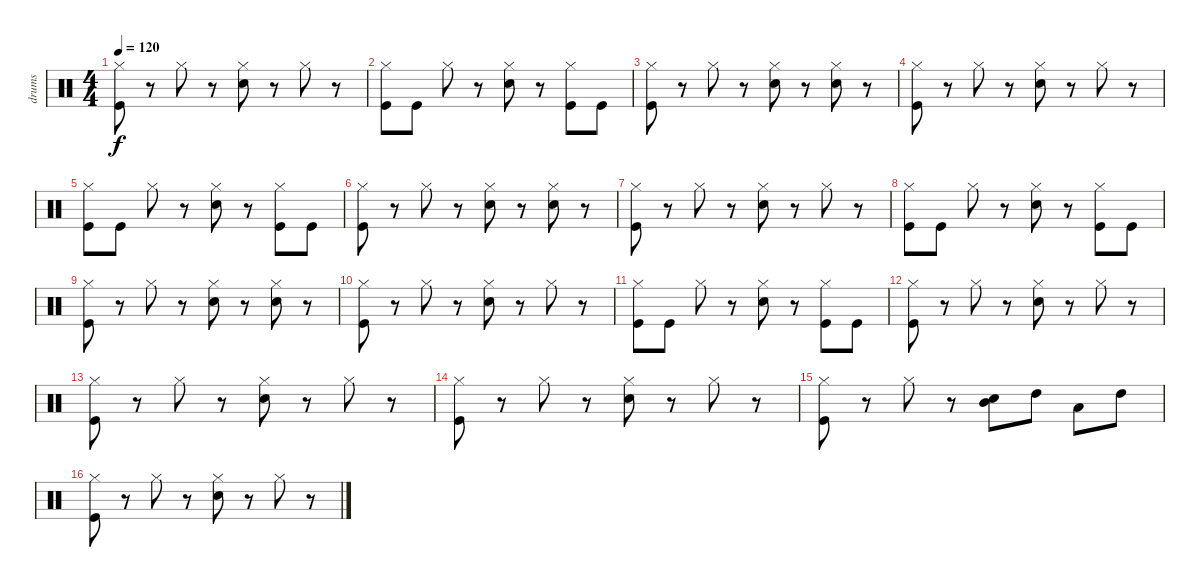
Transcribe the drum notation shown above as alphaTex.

\track ("drums" "drums") {instrument percussion}
\staff {score}
\articulation defaults
\ts (4 4)
\tempo 120
\clef neutral
\ks c
("Hi-Hat (closed)" "Kick (hit)").8{dy f} r.8 "Hi-Hat (closed)".8 r.8 ("Hi-Hat (closed)" "Electric Snare (hit)").8 r.8 "Hi-Hat (closed)".8 r.8 |
("Hi-Hat (closed)" "Kick (hit)").8 "Kick (hit)".8 "Hi-Hat (closed)".8 r.8 ("Hi-Hat (closed)" "Electric Snare (hit)").8 r.8 ("Hi-Hat (closed)" "Kick (hit)").8 "Kick (hit)".8 |
("Hi-Hat (closed)" "Kick (hit)").8 r.8 "Hi-Hat (closed)".8 r.8 ("Hi-Hat (closed)" "Electric Snare (hit)").8 r.8 ("Hi-Hat (closed)" "Electric Snare (hit)").8 r.8 |
("Hi-Hat (closed)" "Kick (hit)").8 r.8 "Hi-Hat (closed)".8 r.8 ("Hi-Hat (closed)" "Electric Snare (hit)").8 r.8 "Hi-Hat (closed)".8 r.8 |
("Hi-Hat (closed)" "Kick (hit)").8 "Kick (hit)".8 "Hi-Hat (closed)".8 r.8 ("Hi-Hat (closed)" "Electric Snare (hit)").8 r.8 ("Hi-Hat (closed)" "Kick (hit)").8 "Kick (hit)".8 |
("Hi-Hat (closed)" "Kick (hit)").8 r.8 "Hi-Hat (closed)".8 r.8 ("Hi-Hat (closed)" "Electric Snare (hit)").8 r.8 ("Hi-Hat (closed)" "Electric Snare (hit)").8 r.8 |
("Hi-Hat (closed)" "Kick (hit)").8 r.8 "Hi-Hat (closed)".8 r.8 ("Hi-Hat (closed)" "Electric Snare (hit)").8 r.8 "Hi-Hat (closed)".8 r.8 |
("Hi-Hat (closed)" "Kick (hit)").8 "Kick (hit)".8 "Hi-Hat (closed)".8 r.8 ("Hi-Hat (closed)" "Electric Snare (hit)").8 r.8 ("Hi-Hat (closed)" "Kick (hit)").8 "Kick (hit)".8 |
("Hi-Hat (closed)" "Kick (hit)").8 r.8 "Hi-Hat (closed)".8 r.8 ("Hi-Hat (closed)" "Electric Snare (hit)").8 r.8 ("Hi-Hat (closed)" "Electric Snare (hit)").8 r.8 |
("Hi-Hat (closed)" "Kick (hit)").8 r.8 "Hi-Hat (closed)".8 r.8 ("Hi-Hat (closed)" "Electric Snare (hit)").8 r.8 "Hi-Hat (closed)".8 r.8 |
("Hi-Hat (closed)" "Kick (hit)").8 "Kick (hit)".8 "Hi-Hat (closed)".8 r.8 ("Hi-Hat (closed)" "Electric Snare (hit)").8 r.8 ("Hi-Hat (closed)" "Kick (hit)").8 "Kick (hit)".8 |
("Hi-Hat (closed)" "Kick (hit)").8 r.8 "Hi-Hat (closed)".8 r.8 ("Hi-Hat (closed)" "Electric Snare (hit)").8 r.8 "Hi-Hat (closed)".8 r.8 |
("Hi-Hat (closed)" "Kick (hit)").8 r.8 "Hi-Hat (closed)".8 r.8 ("Hi-Hat (closed)" "Electric Snare (hit)").8 r.8 "Hi-Hat (closed)".8 r.8 |
("Hi-Hat (closed)" "Kick (hit)").8 r.8 "Hi-Hat (closed)".8 r.8 ("Hi-Hat (closed)" "Electric Snare (hit)").8 r.8 "Hi-Hat (closed)".8 r.8 |
("Hi-Hat (closed)" "Kick (hit)").8 r.8 "Hi-Hat (closed)".8 r.8 ("Mid Tom (hit)" "Electric Snare (hit)").8 "High Tom (hit)".8 "Low Tom (hit)".8 "High Tom (hit)".8 |
("Hi-Hat (closed)" "Kick (hit)").8 r.8 "Hi-Hat (closed)".8 r.8 ("Hi-Hat (closed)" "Electric Snare (hit)").8 r.8 "Hi-Hat (closed)".8 r.8
